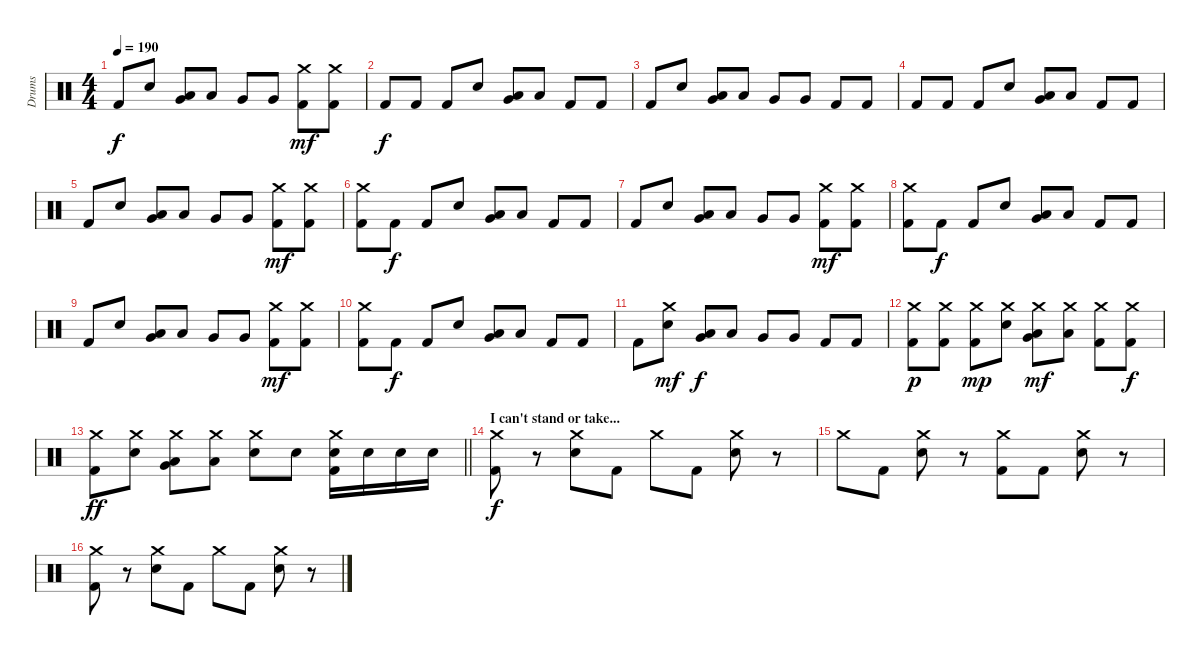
\track ("Drums" "Drums") {instrument percussion}
\staff {score}
\articulation defaults
\ts (4 4)
\tempo 190
\clef neutral
\ks c "Kick (hit) 2".8{dy f} "Electric Snare (hit)".8
("Low Tom (hit)" "Very Low Tom (hit)").8 "Low Floor Tom (hit)".8 "Very Low Tom (hit)".8 "Very Low Tom (hit)".8 ("Crash medium (hit)" "Kick (hit) 2").8{dy mf} ("Crash medium (hit)" "Kick (hit) 2").8 |
"Kick (hit) 2".8{dy f} "Kick (hit) 2".8 "Kick (hit) 2".8 "Electric Snare (hit)".8 ("Low Tom (hit)" "Very Low Tom (hit)").8 "Low Floor Tom (hit)".8 "Kick (hit) 2".8 "Kick (hit) 2".8 |
"Kick (hit) 2".8 "Electric Snare (hit)".8 ("Low Tom (hit)" "Very Low Tom (hit)").8 "Low Floor Tom (hit)".8 "Very Low Tom (hit)".8 "Very Low Tom (hit)".8 "Kick (hit) 2".8 "Kick (hit) 2".8 |
"Kick (hit) 2".8 "Kick (hit) 2".8 "Kick (hit) 2".8 "Electric Snare (hit)".8 ("Low Tom (hit)" "Very Low Tom (hit)").8 "Low Floor Tom (hit)".8 "Kick (hit) 2".8 "Kick (hit) 2".8 |
"Kick (hit) 2".8 "Electric Snare (hit)".8 ("Low Tom (hit)" "Very Low Tom (hit)").8 "Low Floor Tom (hit)".8 "Very Low Tom (hit)".8 "Very Low Tom (hit)".8 ("Crash medium (hit)" "Kick (hit) 2").8{dy mf} ("Crash medium (hit)" "Kick (hit) 2").8 |
("Crash medium (hit)" "Kick (hit) 2").8 "Kick (hit) 2".8{dy f} "Kick (hit) 2".8 "Electric Snare (hit)".8 ("Low Tom (hit)" "Very Low Tom (hit)").8 "Low Floor Tom (hit)".8 "Kick (hit) 2".8 "Kick (hit) 2".8 |
"Kick (hit) 2".8 "Electric Snare (hit)".8 ("Low Tom (hit)" "Very Low Tom (hit)").8 "Low Floor Tom (hit)".8 "Very Low Tom (hit)".8 "Very Low Tom (hit)".8 ("Crash medium (hit)" "Kick (hit) 2").8{dy mf} ("Crash medium (hit)" "Kick (hit) 2").8 |
("Crash medium (hit)" "Kick (hit) 2").8 "Kick (hit) 2".8{dy f} "Kick (hit) 2".8 "Electric Snare (hit)".8 ("Low Tom (hit)" "Very Low Tom (hit)").8 "Low Floor Tom (hit)".8 "Kick (hit) 2".8 "Kick (hit) 2".8 |
"Kick (hit) 2".8 "Electric Snare (hit)".8 ("Low Tom (hit)" "Very Low Tom (hit)").8 "Low Floor Tom (hit)".8 "Very Low Tom (hit)".8 "Very Low Tom (hit)".8 ("Crash medium (hit)" "Kick (hit) 2").8{dy mf} ("Crash medium (hit)" "Kick (hit) 2").8 |
("Crash medium (hit)" "Kick (hit) 2").8 "Kick (hit) 2".8{dy f} "Kick (hit) 2".8 "Electric Snare (hit)".8 ("Low Tom (hit)" "Very Low Tom (hit)").8 "Low Floor Tom (hit)".8 "Kick (hit) 2".8 "Kick (hit) 2".8 |
"Kick (hit) 2".8 ("Crash medium (hit)" "Electric Snare (hit)").8{dy mf} ("Low Tom (hit)" "Very Low Tom (hit)").8{dy f} "Low Floor Tom (hit)".8 "Very Low Tom (hit)".8 "Very Low Tom (hit)".8 "Kick (hit) 2".8 "Kick (hit) 2".8 |
("Crash medium (hit)" "Kick (hit) 2").8{dy p} ("Crash medium (hit)" "Kick (hit) 2").8 ("Crash medium (hit)" "Kick (hit) 2").8{dy mp} ("Crash medium (hit)" "Electric Snare (hit)").8 ("Crash medium (hit)" "Low Tom (hit)" "Very Low Tom (hit)").8{dy mf} ("Crash medium (hit)" "Low Floor Tom (hit)").8 ("Crash medium (hit)" "Kick (hit) 2").8 ("Crash medium (hit)" "Kick (hit) 2").8{dy f} |
\barLineRight lightlight
("Crash medium (hit)" "Kick (hit) 2").8{dy ff} ("Crash medium (hit)" "Electric Snare (hit)").8 ("Crash medium (hit)" "Low Tom (hit)" "Very Low Tom (hit)").8 ("Crash medium (hit)" "Low Floor Tom (hit)").8 ("Crash medium (hit)" "Electric Snare (hit)").8 "Electric Snare (hit)".8 ("Crash medium (hit)" "Electric Snare (hit)" "Kick (hit) 2").16 "Electric Snare (hit)".16 "Electric Snare (hit)".16 "Electric Snare (hit)".16 |
\section ("" "I can't stand or take...")
("Crash medium (hit)" "Kick (hit) 2").8{dy f} r.8 ("Crash medium (hit)" "Electric Snare (hit)").8 "Kick (hit) 2".8 "Crash medium (hit)".8 "Kick (hit) 2".8 ("Crash medium (hit)" "Electric Snare (hit)").8 r.8 |
"Crash medium (hit)".8 "Kick (hit) 2".8 ("Crash medium (hit)" "Electric Snare (hit)").8 r.8 ("Crash medium (hit)" "Kick (hit) 2").8 "Kick (hit) 2".8 ("Crash medium (hit)" "Electric Snare (hit)").8 r.8 |
("Crash medium (hit)" "Kick (hit) 2").8 r.8 ("Crash medium (hit)" "Electric Snare (hit)").8 "Kick (hit) 2".8 "Crash medium (hit)".8 "Kick (hit) 2".8 ("Crash medium (hit)" "Electric Snare (hit)").8 r.8
